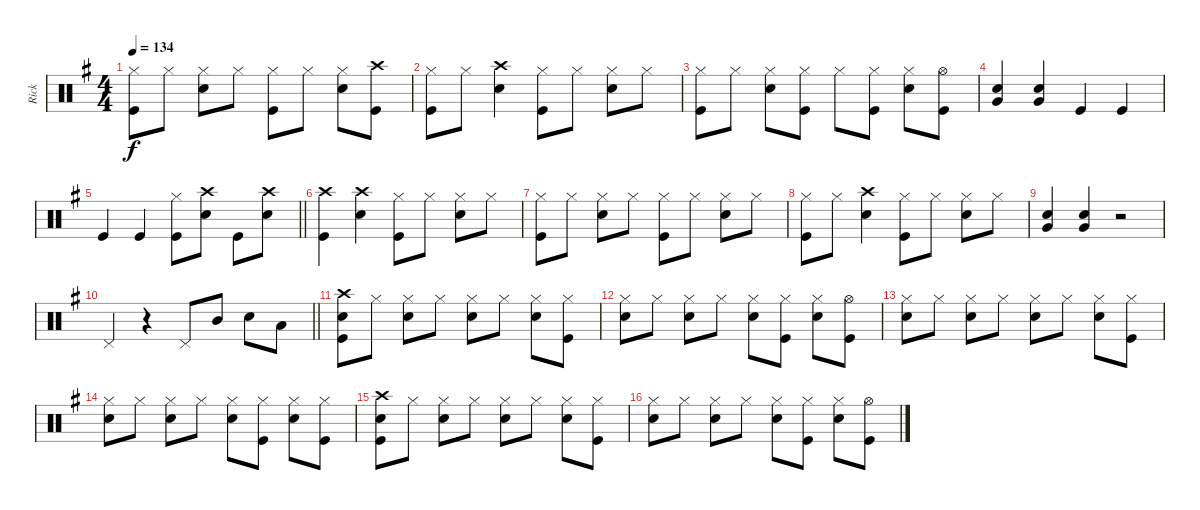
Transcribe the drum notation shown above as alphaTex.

\track ("Rick" "Rick") {instrument percussion}
\staff {score}
\articulation defaults
\ts (4 4)
\tempo 134
\clef neutral
\ks g
("Hi-Hat (closed)" "Kick (hit)").8{dy f} "Hi-Hat (closed)".8 ("Hi-Hat (closed)" "Snare (hit) 2").8 "Hi-Hat (closed)".8 ("Hi-Hat (closed)" "Kick (hit)").8 "Hi-Hat (closed)".8 ("Hi-Hat (closed)" "Snare (hit) 2").8 ("Crash high (hit)" "Kick (hit)").8 |
("Hi-Hat (closed)" "Kick (hit)").8 "Hi-Hat (closed)".8 ("Crash high (hit)" "Snare (hit) 2").4 ("Hi-Hat (closed)" "Kick (hit)").8 "Hi-Hat (closed)".8 ("Hi-Hat (closed)" "Snare (hit) 2").8 "Hi-Hat (closed)".8 |
("Hi-Hat (closed)" "Kick (hit)").8 "Hi-Hat (closed)".8 ("Hi-Hat (closed)" "Snare (hit) 2").8 ("Hi-Hat (closed)" "Kick (hit)").8 "Hi-Hat (closed)".8 ("Hi-Hat (closed)" "Kick (hit)").8 ("Hi-Hat (closed)" "Snare (hit) 2").8 ("Hi-Hat (open)" "Kick (hit)").8 |
("Snare (hit) 2" "Very Low Tom (hit)").4 ("Snare (hit) 2" "Very Low Tom (hit)").4 "Kick (hit)".4 "Kick (hit)".4 |
\barLineRight lightlight "Kick (hit)".4 "Kick (hit)".4
("Hi-Hat (closed)" "Kick (hit)").8 ("Crash high (hit)" "Snare (hit) 2").8 "Kick (hit)".8 ("Crash high (hit)" "Snare (hit) 2").8 |
("Crash high (hit)" "Kick (hit)").4 ("Crash high (hit)" "Snare (hit) 2").4 ("Hi-Hat (closed)" "Kick (hit)").8 "Hi-Hat (closed)".8 ("Hi-Hat (closed)" "Snare (hit) 2").8 "Hi-Hat (closed)".8 |
("Hi-Hat (closed)" "Kick (hit)").8 "Hi-Hat (closed)".8 ("Hi-Hat (closed)" "Snare (hit) 2").8 "Hi-Hat (closed)".8 ("Hi-Hat (closed)" "Kick (hit)").8 "Hi-Hat (closed)".8 ("Hi-Hat (closed)" "Snare (hit) 2").8 "Hi-Hat (closed)".8 |
("Hi-Hat (closed)" "Kick (hit)").8 "Hi-Hat (closed)".8 ("Crash high (hit)" "Snare (hit) 2").4 ("Hi-Hat (closed)" "Kick (hit)").8 "Hi-Hat (closed)".8 ("Hi-Hat (closed)" "Snare (hit) 2").8 "Hi-Hat (closed)".8 |
("Snare (hit) 2" "Very Low Tom (hit)").4 ("Snare (hit) 2" "Very Low Tom (hit)").4 r.2 |
\barLineRight lightlight "Pedal Hi-Hat (hit)".4
r.4 "Pedal Hi-Hat (hit)".8 "Mid Tom (hit)".8 "Snare (hit) 2".8 "Low Tom (hit)".8 |
("Crash high (hit)" "Snare (hit) 2" "Kick (hit)").8 "Hi-Hat (closed)".8 ("Hi-Hat (closed)" "Snare (hit) 2").8 "Hi-Hat (closed)".8 ("Hi-Hat (closed)" "Snare (hit) 2").8 "Hi-Hat (closed)".8 ("Hi-Hat (closed)" "Snare (hit) 2").8 ("Hi-Hat (closed)" "Kick (hit)").8 |
("Hi-Hat (closed)" "Snare (hit) 2").8 "Hi-Hat (closed)".8 ("Hi-Hat (closed)" "Snare (hit) 2").8 "Hi-Hat (closed)".8 ("Hi-Hat (closed)" "Snare (hit) 2").8 ("Hi-Hat (closed)" "Kick (hit)").8 ("Hi-Hat (closed)" "Snare (hit) 2").8 ("Hi-Hat (open)" "Kick (hit)").8 |
("Hi-Hat (closed)" "Snare (hit) 2").8 "Hi-Hat (closed)".8 ("Hi-Hat (closed)" "Snare (hit) 2").8 "Hi-Hat (closed)".8 ("Hi-Hat (closed)" "Snare (hit) 2").8 "Hi-Hat (closed)".8 ("Hi-Hat (closed)" "Snare (hit) 2").8 ("Hi-Hat (closed)" "Kick (hit)").8 |
("Hi-Hat (closed)" "Snare (hit) 2").8 "Hi-Hat (closed)".8 ("Hi-Hat (closed)" "Snare (hit) 2").8 "Hi-Hat (closed)".8 ("Hi-Hat (closed)" "Snare (hit) 2").8 ("Hi-Hat (closed)" "Kick (hit)").8 ("Hi-Hat (closed)" "Snare (hit) 2").8 ("Hi-Hat (closed)" "Kick (hit)").8 |
("Crash high (hit)" "Snare (hit) 2" "Kick (hit)").8 "Hi-Hat (closed)".8 ("Hi-Hat (closed)" "Snare (hit) 2").8 "Hi-Hat (closed)".8 ("Hi-Hat (closed)" "Snare (hit) 2").8 "Hi-Hat (closed)".8 ("Hi-Hat (closed)" "Snare (hit) 2").8 ("Hi-Hat (closed)" "Kick (hit)").8 |
("Hi-Hat (closed)" "Snare (hit) 2").8 "Hi-Hat (closed)".8 ("Hi-Hat (closed)" "Snare (hit) 2").8 "Hi-Hat (closed)".8 ("Hi-Hat (closed)" "Snare (hit) 2").8 ("Hi-Hat (closed)" "Kick (hit)").8 ("Hi-Hat (closed)" "Snare (hit) 2").8 ("Hi-Hat (open)" "Kick (hit)").8
